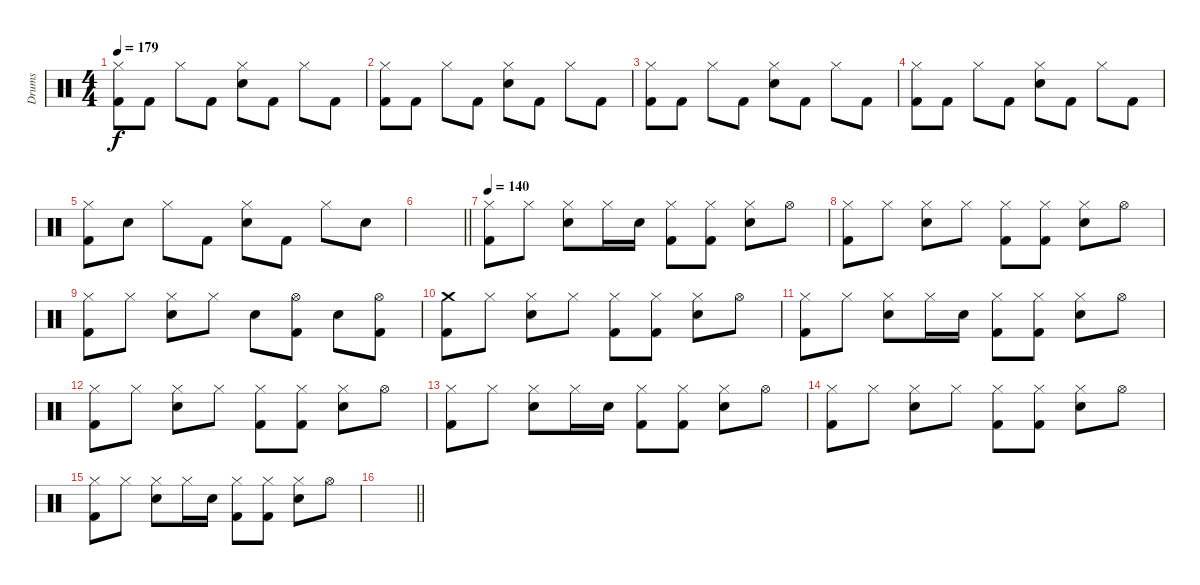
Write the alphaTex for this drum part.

\track ("Drums" "Drums") {instrument percussion}
\staff {score}
\articulation defaults
\ts (4 4)
\tempo 179
\clef neutral
\ks c
("Hi-Hat (closed)" "Kick (hit) 2").8{dy f} "Kick (hit) 2".8 "Hi-Hat (closed)".8 "Kick (hit) 2".8 ("Hi-Hat (closed)" "Electric Snare (hit)").8 "Kick (hit) 2".8 "Hi-Hat (closed)".8 "Kick (hit) 2".8 |
("Hi-Hat (closed)" "Kick (hit) 2").8 "Kick (hit) 2".8 "Hi-Hat (closed)".8 "Kick (hit) 2".8 ("Hi-Hat (closed)" "Electric Snare (hit)").8 "Kick (hit) 2".8 "Hi-Hat (closed)".8 "Kick (hit) 2".8 |
("Hi-Hat (closed)" "Kick (hit) 2").8 "Kick (hit) 2".8 "Hi-Hat (closed)".8 "Kick (hit) 2".8 ("Hi-Hat (closed)" "Electric Snare (hit)").8 "Kick (hit) 2".8 "Hi-Hat (closed)".8 "Kick (hit) 2".8 |
("Hi-Hat (closed)" "Kick (hit) 2").8 "Kick (hit) 2".8 "Hi-Hat (closed)".8 "Kick (hit) 2".8 ("Hi-Hat (closed)" "Electric Snare (hit)").8 "Kick (hit) 2".8 "Hi-Hat (closed)".8 "Kick (hit) 2".8 |
("Hi-Hat (closed)" "Kick (hit) 2").8 "Electric Snare (hit)".8 "Hi-Hat (closed)".8 "Kick (hit) 2".8 ("Hi-Hat (closed)" "Electric Snare (hit)").8 "Kick (hit) 2".8 "Hi-Hat (closed)".8 "Electric Snare (hit)".8 |
\barLineRight lightlight
|
\tempo 140
("Hi-Hat (closed)" "Kick (hit) 2").8 "Hi-Hat (closed)".8 ("Hi-Hat (closed)" "Electric Snare (hit)").8 "Hi-Hat (closed)".16 "Electric Snare (hit)".16 ("Hi-Hat (closed)" "Kick (hit) 2").8 ("Hi-Hat (closed)" "Kick (hit) 2").8 ("Hi-Hat (closed)" "Electric Snare (hit)").8 "Hi-Hat (open)".8 |
("Hi-Hat (closed)" "Kick (hit) 2").8 "Hi-Hat (closed)".8 ("Hi-Hat (closed)" "Electric Snare (hit)").8 "Hi-Hat (closed)".8 ("Hi-Hat (closed)" "Kick (hit) 2").8 ("Hi-Hat (closed)" "Kick (hit) 2").8 ("Hi-Hat (closed)" "Electric Snare (hit)").8 "Hi-Hat (open)".8 |
("Hi-Hat (closed)" "Kick (hit) 2").8 "Hi-Hat (closed)".8 ("Hi-Hat (closed)" "Electric Snare (hit)").8 "Hi-Hat (closed)".8 "Electric Snare (hit)".8 ("Hi-Hat (open)" "Kick (hit) 2").8 "Electric Snare (hit)".8 ("Hi-Hat (open)" "Kick (hit) 2").8 |
("Crash medium (hit)" "Kick (hit) 2").8 "Hi-Hat (closed)".8 ("Hi-Hat (closed)" "Electric Snare (hit)").8 "Hi-Hat (closed)".8 ("Hi-Hat (closed)" "Kick (hit) 2").8 ("Hi-Hat (closed)" "Kick (hit) 2").8 ("Hi-Hat (closed)" "Electric Snare (hit)").8 "Hi-Hat (open)".8 |
("Hi-Hat (closed)" "Kick (hit) 2").8 "Hi-Hat (closed)".8 ("Hi-Hat (closed)" "Electric Snare (hit)").8 "Hi-Hat (closed)".16 "Electric Snare (hit)".16 ("Hi-Hat (closed)" "Kick (hit) 2").8 ("Hi-Hat (closed)" "Kick (hit) 2").8 ("Hi-Hat (closed)" "Electric Snare (hit)").8 "Hi-Hat (open)".8 |
("Hi-Hat (closed)" "Kick (hit) 2").8 "Hi-Hat (closed)".8 ("Hi-Hat (closed)" "Electric Snare (hit)").8 "Hi-Hat (closed)".8 ("Hi-Hat (closed)" "Kick (hit) 2").8 ("Hi-Hat (closed)" "Kick (hit) 2").8 ("Hi-Hat (closed)" "Electric Snare (hit)").8 "Hi-Hat (open)".8 |
("Hi-Hat (closed)" "Kick (hit) 2").8 "Hi-Hat (closed)".8 ("Hi-Hat (closed)" "Electric Snare (hit)").8 "Hi-Hat (closed)".16 "Electric Snare (hit)".16 ("Hi-Hat (closed)" "Kick (hit) 2").8 ("Hi-Hat (closed)" "Kick (hit) 2").8 ("Hi-Hat (closed)" "Electric Snare (hit)").8 "Hi-Hat (open)".8 |
("Hi-Hat (closed)" "Kick (hit) 2").8 "Hi-Hat (closed)".8 ("Hi-Hat (closed)" "Electric Snare (hit)").8 "Hi-Hat (closed)".8 ("Hi-Hat (closed)" "Kick (hit) 2").8 ("Hi-Hat (closed)" "Kick (hit) 2").8 ("Hi-Hat (closed)" "Electric Snare (hit)").8 "Hi-Hat (open)".8 |
("Hi-Hat (closed)" "Kick (hit) 2").8 "Hi-Hat (closed)".8 ("Hi-Hat (closed)" "Electric Snare (hit)").8 "Hi-Hat (closed)".16 "Electric Snare (hit)".16 ("Hi-Hat (closed)" "Kick (hit) 2").8 ("Hi-Hat (closed)" "Kick (hit) 2").8 ("Hi-Hat (closed)" "Electric Snare (hit)").8 "Hi-Hat (open)".8 |
\barLineRight lightlight
